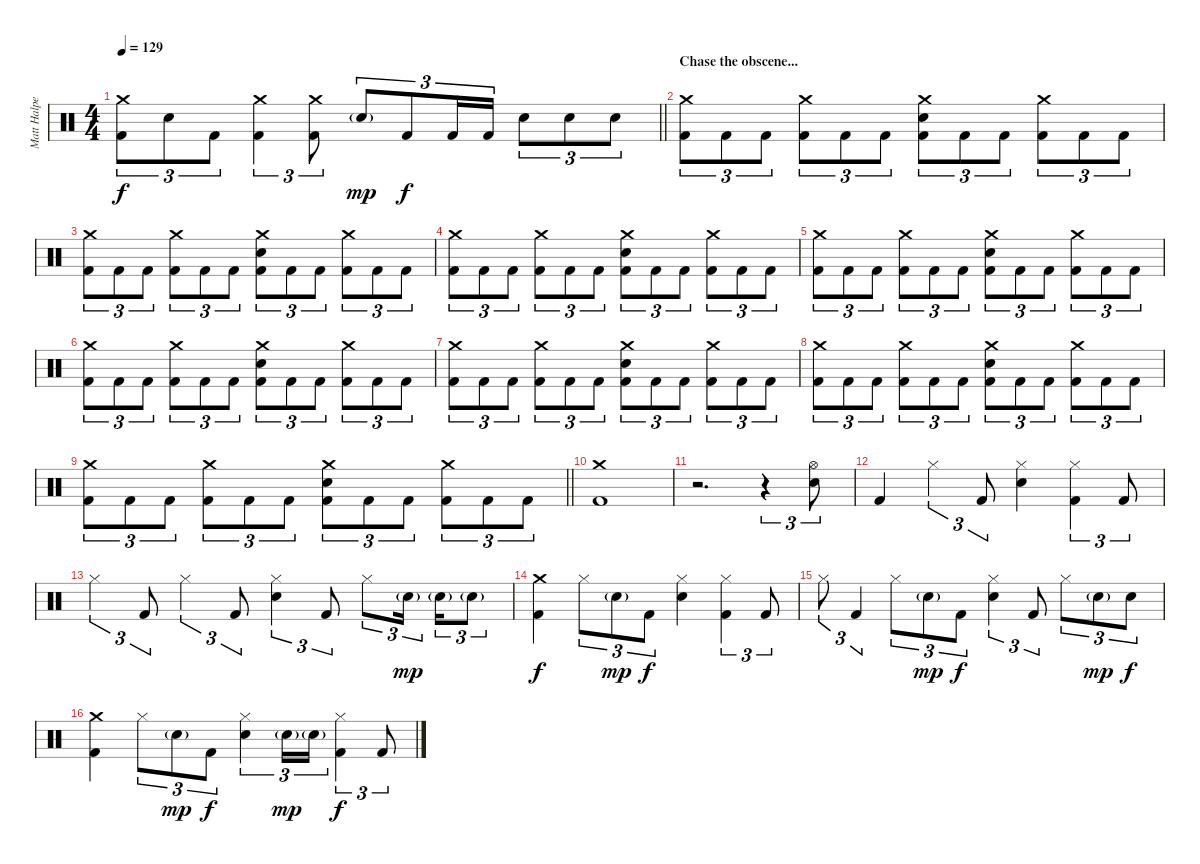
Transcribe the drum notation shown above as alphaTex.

\track ("Matt Halpern - Drums" "Matt Halpe") {instrument percussion}
\staff {score}
\articulation defaults
\ts (4 4)
\tempo 129
\clef neutral
\barLineRight lightlight
\ks c
("Crash medium (hit)" "Kick (hit) 2").8{tu (3 2) dy f} "Electric Snare (hit)".8{tu (3 2)} "Kick (hit) 2".8{tu (3 2)} ("Crash medium (hit)" "Kick (hit) 2").4{tu (3 2)} ("Crash medium (hit)" "Kick (hit) 2").8{tu (3 2)} "Electric Snare (hit)"{g}.8{tu (3 2) dy mp} "Kick (hit) 2".8{tu (3 2) dy f} "Kick (hit) 2".16{tu (3 2)} "Kick (hit) 2".16{tu (3 2)} "Electric Snare (hit)".8{tu (3 2)} "Electric Snare (hit)".8{tu (3 2)} "Electric Snare (hit)".8{tu (3 2)} |
\section ("" "Chase the obscene...")
("Crash medium (hit)" "Kick (hit) 2").8{tu (3 2)} "Kick (hit) 2".8{tu (3 2)} "Kick (hit) 2".8{tu (3 2)} ("Crash medium (hit)" "Kick (hit) 2").8{tu (3 2)} "Kick (hit) 2".8{tu (3 2)} "Kick (hit) 2".8{tu (3 2)} ("Crash medium (hit)" "Electric Snare (hit)" "Kick (hit) 2").8{tu (3 2)} "Kick (hit) 2".8{tu (3 2)} "Kick (hit) 2".8{tu (3 2)} ("Crash medium (hit)" "Kick (hit) 2").8{tu (3 2)} "Kick (hit) 2".8{tu (3 2)} "Kick (hit) 2".8{tu (3 2)} |
("Crash medium (hit)" "Kick (hit) 2").8{tu (3 2)} "Kick (hit) 2".8{tu (3 2)} "Kick (hit) 2".8{tu (3 2)} ("Crash medium (hit)" "Kick (hit) 2").8{tu (3 2)} "Kick (hit) 2".8{tu (3 2)} "Kick (hit) 2".8{tu (3 2)} ("Crash medium (hit)" "Electric Snare (hit)" "Kick (hit) 2").8{tu (3 2)} "Kick (hit) 2".8{tu (3 2)} "Kick (hit) 2".8{tu (3 2)} ("Crash medium (hit)" "Kick (hit) 2").8{tu (3 2)} "Kick (hit) 2".8{tu (3 2)} "Kick (hit) 2".8{tu (3 2)} |
("Crash medium (hit)" "Kick (hit) 2").8{tu (3 2)} "Kick (hit) 2".8{tu (3 2)} "Kick (hit) 2".8{tu (3 2)} ("Crash medium (hit)" "Kick (hit) 2").8{tu (3 2)} "Kick (hit) 2".8{tu (3 2)} "Kick (hit) 2".8{tu (3 2)} ("Crash medium (hit)" "Electric Snare (hit)" "Kick (hit) 2").8{tu (3 2)} "Kick (hit) 2".8{tu (3 2)} "Kick (hit) 2".8{tu (3 2)} ("Crash medium (hit)" "Kick (hit) 2").8{tu (3 2)} "Kick (hit) 2".8{tu (3 2)} "Kick (hit) 2".8{tu (3 2)} |
("Crash medium (hit)" "Kick (hit) 2").8{tu (3 2)} "Kick (hit) 2".8{tu (3 2)} "Kick (hit) 2".8{tu (3 2)} ("Crash medium (hit)" "Kick (hit) 2").8{tu (3 2)} "Kick (hit) 2".8{tu (3 2)} "Kick (hit) 2".8{tu (3 2)} ("Crash medium (hit)" "Electric Snare (hit)" "Kick (hit) 2").8{tu (3 2)} "Kick (hit) 2".8{tu (3 2)} "Kick (hit) 2".8{tu (3 2)} ("Crash medium (hit)" "Kick (hit) 2").8{tu (3 2)} "Kick (hit) 2".8{tu (3 2)} "Kick (hit) 2".8{tu (3 2)} |
("Crash medium (hit)" "Kick (hit) 2").8{tu (3 2)} "Kick (hit) 2".8{tu (3 2)} "Kick (hit) 2".8{tu (3 2)} ("Crash medium (hit)" "Kick (hit) 2").8{tu (3 2)} "Kick (hit) 2".8{tu (3 2)} "Kick (hit) 2".8{tu (3 2)} ("Crash medium (hit)" "Electric Snare (hit)" "Kick (hit) 2").8{tu (3 2)} "Kick (hit) 2".8{tu (3 2)} "Kick (hit) 2".8{tu (3 2)} ("Crash medium (hit)" "Kick (hit) 2").8{tu (3 2)} "Kick (hit) 2".8{tu (3 2)} "Kick (hit) 2".8{tu (3 2)} |
("Crash medium (hit)" "Kick (hit) 2").8{tu (3 2)} "Kick (hit) 2".8{tu (3 2)} "Kick (hit) 2".8{tu (3 2)} ("Crash medium (hit)" "Kick (hit) 2").8{tu (3 2)} "Kick (hit) 2".8{tu (3 2)} "Kick (hit) 2".8{tu (3 2)} ("Crash medium (hit)" "Electric Snare (hit)" "Kick (hit) 2").8{tu (3 2)} "Kick (hit) 2".8{tu (3 2)} "Kick (hit) 2".8{tu (3 2)} ("Crash medium (hit)" "Kick (hit) 2").8{tu (3 2)} "Kick (hit) 2".8{tu (3 2)} "Kick (hit) 2".8{tu (3 2)} |
("Crash medium (hit)" "Kick (hit) 2").8{tu (3 2)} "Kick (hit) 2".8{tu (3 2)} "Kick (hit) 2".8{tu (3 2)} ("Crash medium (hit)" "Kick (hit) 2").8{tu (3 2)} "Kick (hit) 2".8{tu (3 2)} "Kick (hit) 2".8{tu (3 2)} ("Crash medium (hit)" "Electric Snare (hit)" "Kick (hit) 2").8{tu (3 2)} "Kick (hit) 2".8{tu (3 2)} "Kick (hit) 2".8{tu (3 2)} ("Crash medium (hit)" "Kick (hit) 2").8{tu (3 2)} "Kick (hit) 2".8{tu (3 2)} "Kick (hit) 2".8{tu (3 2)} |
\barLineRight lightlight
("Crash medium (hit)" "Kick (hit) 2").8{tu (3 2)} "Kick (hit) 2".8{tu (3 2)} "Kick (hit) 2".8{tu (3 2)} ("Crash medium (hit)" "Kick (hit) 2").8{tu (3 2)} "Kick (hit) 2".8{tu (3 2)} "Kick (hit) 2".8{tu (3 2)} ("Crash medium (hit)" "Electric Snare (hit)" "Kick (hit) 2").8{tu (3 2)} "Kick (hit) 2".8{tu (3 2)} "Kick (hit) 2".8{tu (3 2)} ("Crash medium (hit)" "Kick (hit) 2").8{tu (3 2)} "Kick (hit) 2".8{tu (3 2)} "Kick (hit) 2".8{tu (3 2)} |
\section ("" "")
("Crash medium (hit)" "Kick (hit) 2").1 |
r.2{d} r.4{tu (3 2)} ("Hi-Hat (open)" "Electric Snare (hit)").8{tu (3 2)} |
"Kick (hit) 2".4 "Hi-Hat (closed)".4{tu (3 2)} "Kick (hit) 2".8{tu (3 2)} ("Hi-Hat (closed)" "Electric Snare (hit)").4 ("Hi-Hat (closed)" "Kick (hit) 2").4{tu (3 2)} "Kick (hit) 2".8{tu (3 2)} |
"Hi-Hat (closed)".4{tu (3 2)} "Kick (hit) 2".8{tu (3 2)} "Hi-Hat (closed)".4{tu (3 2)} "Kick (hit) 2".8{tu (3 2)} ("Hi-Hat (closed)" "Electric Snare (hit)").4{tu (3 2)} "Kick (hit) 2".8{tu (3 2)} "Hi-Hat (closed)".8{tu (3 2)} "Electric Snare (hit)"{g}.16{tu (3 2) dy mp beam splitsecondary} "Electric Snare (hit)"{g}.16{tu (3 2)} "Electric Snare (hit)"{g}.8{tu (3 2)} |
("Crash medium (hit)" "Kick (hit) 2").4{dy f} "Hi-Hat (closed)".8{tu (3 2)} "Electric Snare (hit)"{g}.8{tu (3 2) dy mp} "Kick (hit) 2".8{tu (3 2) dy f} ("Hi-Hat (closed)" "Electric Snare (hit)").4 ("Hi-Hat (closed)" "Kick (hit) 2").4{tu (3 2)} "Kick (hit) 2".8{tu (3 2)} |
"Hi-Hat (closed)".8{tu (3 2)} "Kick (hit) 2".4{tu (3 2)} "Hi-Hat (closed)".8{tu (3 2)} "Electric Snare (hit)"{g}.8{tu (3 2) dy mp} "Kick (hit) 2".8{tu (3 2) dy f} ("Hi-Hat (closed)" "Electric Snare (hit)").4{tu (3 2)} "Kick (hit) 2".8{tu (3 2)} "Hi-Hat (closed)".8{tu (3 2)} "Electric Snare (hit)"{g}.8{tu (3 2) dy mp} "Electric Snare (hit)".8{tu (3 2) dy f} |
("Crash medium (hit)" "Kick (hit) 2").4 "Hi-Hat (closed)".8{tu (3 2)} "Electric Snare (hit)"{g}.8{tu (3 2) dy mp} "Kick (hit) 2".8{tu (3 2) dy f} ("Hi-Hat (closed)" "Electric Snare (hit)").4{tu (3 2)} "Electric Snare (hit)"{g}.16{tu (3 2) dy mp} "Electric Snare (hit)"{g}.16{tu (3 2)} ("Hi-Hat (closed)" "Kick (hit) 2").4{tu (3 2) dy f} "Kick (hit) 2".8{tu (3 2)}
